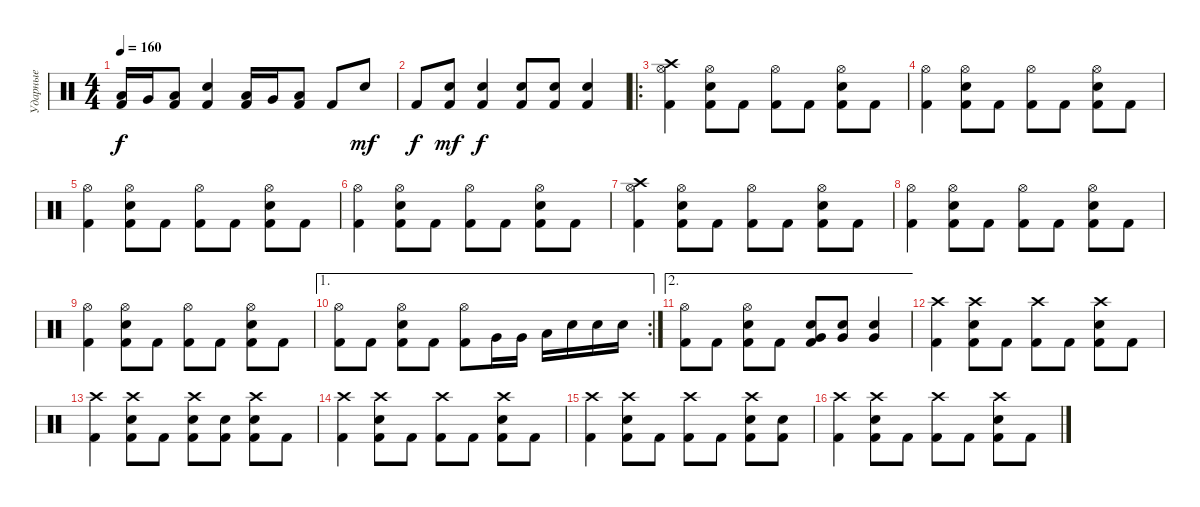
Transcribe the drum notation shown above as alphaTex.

\track ("Ударные" "Ударные") {instrument percussion}
\staff {score}
\articulation defaults
\ts (4 4)
\tempo 160
\clef neutral
\ks c
("Low Floor Tom (hit)" "Kick (hit) 2").16{dy f} "Very Low Tom (hit)".16 ("Low Floor Tom (hit)" "Kick (hit) 2").8 ("Snare (hit) 2" "Kick (hit) 2").4 ("Low Floor Tom (hit)" "Kick (hit) 2").16 "Very Low Tom (hit)".16 ("Low Floor Tom (hit)" "Kick (hit) 2").8 "Kick (hit) 2".8 "Snare (hit) 2".8{dy mf} |
"Kick (hit) 2".8{dy f} ("Snare (hit) 2" "Kick (hit) 2").8{dy mf} ("Snare (hit) 2" "Kick (hit) 2").4{dy f} ("Snare (hit) 2" "Kick (hit) 2").8 ("Snare (hit) 2" "Kick (hit) 2").8 ("Snare (hit) 2" "Kick (hit) 2").4 |
\ro
("Crash high (hit)" "Hi-Hat (open)" "Kick (hit) 2").4 ("Hi-Hat (open)" "Snare (hit) 2" "Kick (hit) 2").8 "Kick (hit) 2".8 ("Hi-Hat (open)" "Kick (hit) 2").8 "Kick (hit) 2".8 ("Hi-Hat (open)" "Snare (hit) 2" "Kick (hit) 2").8 "Kick (hit) 2".8 |
("Hi-Hat (open)" "Kick (hit) 2").4 ("Hi-Hat (open)" "Snare (hit) 2" "Kick (hit) 2").8 "Kick (hit) 2".8 ("Hi-Hat (open)" "Kick (hit) 2").8 "Kick (hit) 2".8 ("Hi-Hat (open)" "Snare (hit) 2" "Kick (hit) 2").8 "Kick (hit) 2".8 |
("Hi-Hat (open)" "Kick (hit) 2").4 ("Hi-Hat (open)" "Snare (hit) 2" "Kick (hit) 2").8 "Kick (hit) 2".8 ("Hi-Hat (open)" "Kick (hit) 2").8 "Kick (hit) 2".8 ("Hi-Hat (open)" "Snare (hit) 2" "Kick (hit) 2").8 "Kick (hit) 2".8 |
("Hi-Hat (open)" "Kick (hit) 2").4 ("Hi-Hat (open)" "Snare (hit) 2" "Kick (hit) 2").8 "Kick (hit) 2".8 ("Hi-Hat (open)" "Kick (hit) 2").8 "Kick (hit) 2".8 ("Hi-Hat (open)" "Snare (hit) 2" "Kick (hit) 2").8 "Kick (hit) 2".8 |
("Crash high (hit)" "Hi-Hat (open)" "Kick (hit) 2").4 ("Hi-Hat (open)" "Snare (hit) 2" "Kick (hit) 2").8 "Kick (hit) 2".8 ("Hi-Hat (open)" "Kick (hit) 2").8 "Kick (hit) 2".8 ("Hi-Hat (open)" "Snare (hit) 2" "Kick (hit) 2").8 "Kick (hit) 2".8 |
("Hi-Hat (open)" "Kick (hit) 2").4 ("Hi-Hat (open)" "Snare (hit) 2" "Kick (hit) 2").8 "Kick (hit) 2".8 ("Hi-Hat (open)" "Kick (hit) 2").8 "Kick (hit) 2".8 ("Hi-Hat (open)" "Snare (hit) 2" "Kick (hit) 2").8 "Kick (hit) 2".8 |
("Hi-Hat (open)" "Kick (hit) 2").4 ("Hi-Hat (open)" "Snare (hit) 2" "Kick (hit) 2").8 "Kick (hit) 2".8 ("Hi-Hat (open)" "Kick (hit) 2").8 "Kick (hit) 2".8 ("Hi-Hat (open)" "Snare (hit) 2" "Kick (hit) 2").8 "Kick (hit) 2".8 |
\ae 1
\rc 2
("Hi-Hat (open)" "Kick (hit) 2").8 "Kick (hit) 2".8 ("Hi-Hat (open)" "Snare (hit) 2" "Kick (hit) 2").8 "Kick (hit) 2".8 ("Hi-Hat (open)" "Kick (hit) 2").8 "Very Low Tom (hit)".16 "Very Low Tom (hit)".16 "Low Floor Tom (hit)".16 "Snare (hit) 2".16 "Snare (hit) 2".16 "Snare (hit) 2".16 |
\ae 2
("Hi-Hat (open)" "Kick (hit) 2").8 "Kick (hit) 2".8 ("Hi-Hat (open)" "Snare (hit) 2" "Kick (hit) 2").8 "Kick (hit) 2".8 ("Very Low Tom (hit)" "Snare (hit) 2" "Kick (hit) 2").8 ("Very Low Tom (hit)" "Snare (hit) 2").8 ("Very Low Tom (hit)" "Snare (hit) 2").4 |
("Crash high (hit)" "Kick (hit) 2").4 ("Crash high (hit)" "Snare (hit) 2" "Kick (hit) 2").8 "Kick (hit) 2".8 ("Crash high (hit)" "Kick (hit) 2").8 "Kick (hit) 2".8 ("Crash high (hit)" "Snare (hit) 2" "Kick (hit) 2").8 "Kick (hit) 2".8 |
("Crash high (hit)" "Kick (hit) 2").4 ("Crash high (hit)" "Snare (hit) 2" "Kick (hit) 2").8 "Kick (hit) 2".8 ("Crash high (hit)" "Snare (hit) 2" "Kick (hit) 2").8 ("Snare (hit) 2" "Kick (hit) 2").8 ("Crash high (hit)" "Snare (hit) 2" "Kick (hit) 2").8 "Kick (hit) 2".8 |
("Crash high (hit)" "Kick (hit) 2").4 ("Crash high (hit)" "Snare (hit) 2" "Kick (hit) 2").8 "Kick (hit) 2".8 ("Crash high (hit)" "Kick (hit) 2").8 "Kick (hit) 2".8 ("Crash high (hit)" "Snare (hit) 2" "Kick (hit) 2").8 "Kick (hit) 2".8 |
("Crash high (hit)" "Kick (hit) 2").4 ("Crash high (hit)" "Snare (hit) 2" "Kick (hit) 2").8 "Kick (hit) 2".8 ("Crash high (hit)" "Kick (hit) 2").8 "Kick (hit) 2".8 ("Crash high (hit)" "Snare (hit) 2" "Kick (hit) 2").8 ("Snare (hit) 2" "Kick (hit) 2").8 |
("Crash high (hit)" "Kick (hit) 2").4 ("Crash high (hit)" "Snare (hit) 2" "Kick (hit) 2").8 "Kick (hit) 2".8 ("Crash high (hit)" "Kick (hit) 2").8 "Kick (hit) 2".8 ("Crash high (hit)" "Snare (hit) 2" "Kick (hit) 2").8 "Kick (hit) 2".8
